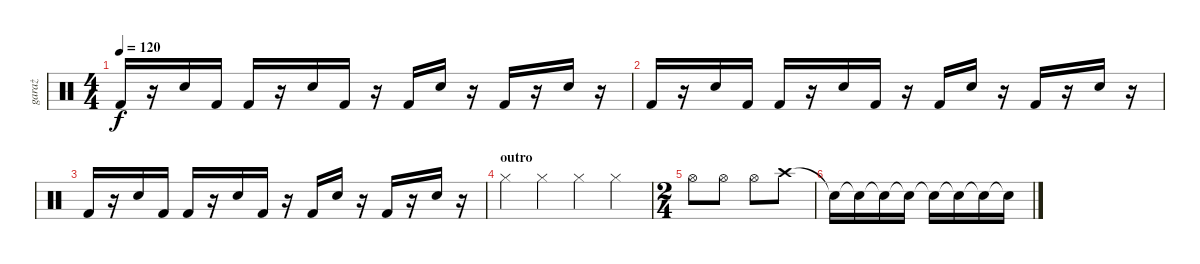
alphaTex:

\track ("garaż" "garaż") {instrument percussion}
\staff {score}
\articulation defaults
\ts (4 4)
\tempo 120
\clef neutral
\ks c "Kick (hit) 2".16{dy f}
r.16 "Snare (hit) 2".16 "Kick (hit) 2".16 "Kick (hit) 2".16 r.16 "Snare (hit) 2".16 "Kick (hit) 2".16 r.16 "Kick (hit) 2".16 "Snare (hit) 2".16 r.16 "Kick (hit) 2".16 r.16 "Snare (hit) 2".16 r.16 |
"Kick (hit) 2".16 r.16 "Snare (hit) 2".16 "Kick (hit) 2".16 "Kick (hit) 2".16 r.16 "Snare (hit) 2".16 "Kick (hit) 2".16 r.16 "Kick (hit) 2".16 "Snare (hit) 2".16 r.16 "Kick (hit) 2".16 r.16 "Snare (hit) 2".16 r.16 |
"Kick (hit) 2".16 r.16 "Snare (hit) 2".16 "Kick (hit) 2".16 "Kick (hit) 2".16 r.16 "Snare (hit) 2".16 "Kick (hit) 2".16 r.16 "Kick (hit) 2".16 "Snare (hit) 2".16 r.16 "Kick (hit) 2".16 r.16 "Snare (hit) 2".16 r.16 |
\section ("" "outro")
"Hi-Hat (closed)".4 "Hi-Hat (closed)".4 "Hi-Hat (closed)".4 "Hi-Hat (closed)".4 |
\ts (2 4)
"Hi-Hat (open)".8 "Hi-Hat (open)".8 "Hi-Hat (open)".8 "Crash high (hit)".8 |
"Snare (hit)"{t}.16 "Snare (hit)"{t}.16 "Snare (hit)"{t}.16 "Snare (hit)"{t}.16 "Snare (hit)"{t}.16 "Snare (hit)"{t}.16 "Snare (hit)"{t}.16 "Snare (hit)"{t}.16
